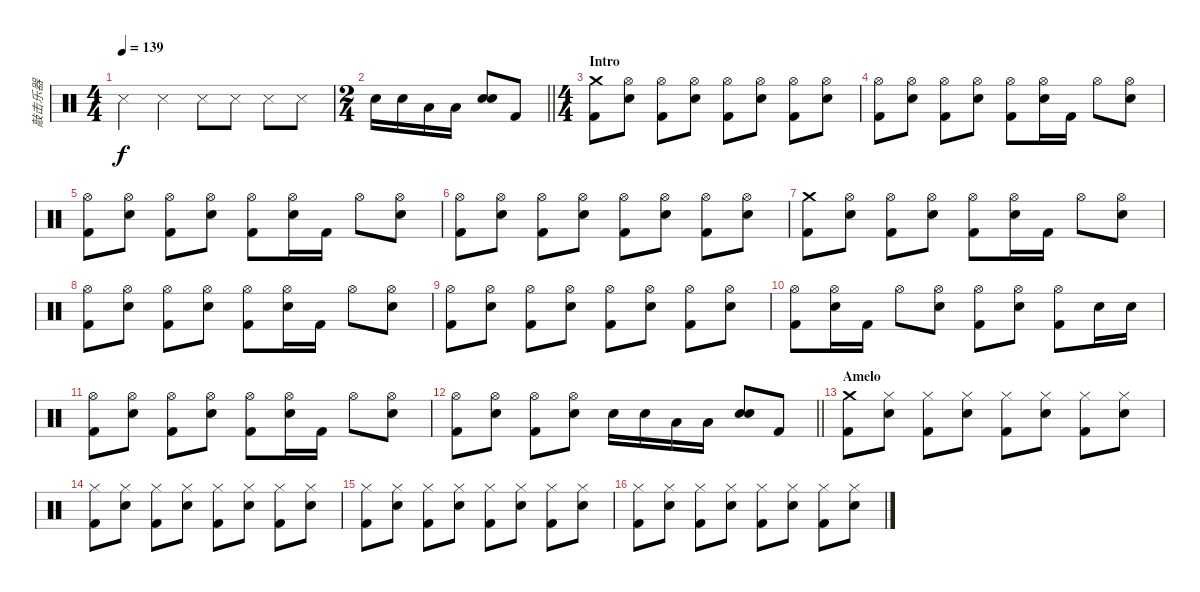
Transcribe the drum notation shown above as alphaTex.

\track ("敲击乐器" "敲击乐器") {instrument percussion}
\staff {score}
\articulation defaults
\ts (4 4)
\tempo 139
\clef neutral
\ks c "Metronome (hit)".4{dy f} "Metronome (hit)".4 "Metronome (hit)".8 "Metronome (hit)".8 "Metronome (hit)".8 "Metronome (hit)".8
|
\ts (2 4)
\barLineRight lightlight "Electric Snare (hit)".16 "Electric Snare (hit)".16 "Low Tom (hit)".16 "Low Tom (hit)".16
("Electric Snare (hit)" "Electric Snare (hit)").8{bd 480} "Kick (hit) 2".8 |
\ts (4 4)
\section ("" "Intro")
("Crash medium (hit)" "Kick (hit) 2").8 ("Hi-Hat (open)" "Electric Snare (hit)").8 ("Hi-Hat (open)" "Kick (hit) 2").8 ("Hi-Hat (open)" "Electric Snare (hit)").8 ("Hi-Hat (open)" "Kick (hit) 2").8 ("Hi-Hat (open)" "Electric Snare (hit)").8 ("Hi-Hat (open)" "Kick (hit) 2").8 ("Hi-Hat (open)" "Electric Snare (hit)").8 |
("Hi-Hat (open)" "Kick (hit) 2").8 ("Hi-Hat (open)" "Electric Snare (hit)").8 ("Hi-Hat (open)" "Kick (hit) 2").8 ("Hi-Hat (open)" "Electric Snare (hit)").8 ("Hi-Hat (open)" "Kick (hit) 2").8 ("Hi-Hat (open)" "Electric Snare (hit)").16 "Kick (hit) 2".16 "Hi-Hat (open)".8 ("Hi-Hat (open)" "Electric Snare (hit)").8 |
("Hi-Hat (open)" "Kick (hit) 2").8 ("Hi-Hat (open)" "Electric Snare (hit)").8 ("Hi-Hat (open)" "Kick (hit) 2").8 ("Hi-Hat (open)" "Electric Snare (hit)").8 ("Hi-Hat (open)" "Kick (hit) 2").8 ("Hi-Hat (open)" "Electric Snare (hit)").16 "Kick (hit) 2".16 "Hi-Hat (open)".8 ("Hi-Hat (open)" "Electric Snare (hit)").8 |
("Hi-Hat (open)" "Kick (hit) 2").8 ("Hi-Hat (open)" "Electric Snare (hit)").8 ("Hi-Hat (open)" "Kick (hit) 2").8 ("Hi-Hat (open)" "Electric Snare (hit)").8 ("Hi-Hat (open)" "Kick (hit) 2").8 ("Hi-Hat (open)" "Electric Snare (hit)").8 ("Hi-Hat (open)" "Kick (hit) 2").8 ("Hi-Hat (open)" "Electric Snare (hit)").8 |
("Crash medium (hit)" "Kick (hit) 2").8 ("Hi-Hat (open)" "Electric Snare (hit)").8 ("Hi-Hat (open)" "Kick (hit) 2").8 ("Hi-Hat (open)" "Electric Snare (hit)").8 ("Hi-Hat (open)" "Kick (hit) 2").8 ("Hi-Hat (open)" "Electric Snare (hit)").16 "Kick (hit) 2".16 "Hi-Hat (open)".8 ("Hi-Hat (open)" "Electric Snare (hit)").8 |
("Hi-Hat (open)" "Kick (hit) 2").8 ("Hi-Hat (open)" "Electric Snare (hit)").8 ("Hi-Hat (open)" "Kick (hit) 2").8 ("Hi-Hat (open)" "Electric Snare (hit)").8 ("Hi-Hat (open)" "Kick (hit) 2").8 ("Hi-Hat (open)" "Electric Snare (hit)").16 "Kick (hit) 2".16 "Hi-Hat (open)".8 ("Hi-Hat (open)" "Electric Snare (hit)").8 |
("Hi-Hat (open)" "Kick (hit) 2").8 ("Hi-Hat (open)" "Electric Snare (hit)").8 ("Hi-Hat (open)" "Kick (hit) 2").8 ("Hi-Hat (open)" "Electric Snare (hit)").8 ("Hi-Hat (open)" "Kick (hit) 2").8 ("Hi-Hat (open)" "Electric Snare (hit)").8 ("Hi-Hat (open)" "Kick (hit) 2").8 ("Hi-Hat (open)" "Electric Snare (hit)").8 |
("Hi-Hat (open)" "Kick (hit) 2").8 ("Hi-Hat (open)" "Electric Snare (hit)").16 "Kick (hit) 2".16 "Hi-Hat (open)".8 ("Hi-Hat (open)" "Electric Snare (hit)").8 ("Hi-Hat (open)" "Kick (hit) 2").8 ("Hi-Hat (open)" "Electric Snare (hit)").8 ("Hi-Hat (open)" "Kick (hit) 2").8 "Electric Snare (hit)".16 "Electric Snare (hit)".16 |
("Hi-Hat (open)" "Kick (hit) 2").8 ("Hi-Hat (open)" "Electric Snare (hit)").8 ("Hi-Hat (open)" "Kick (hit) 2").8 ("Hi-Hat (open)" "Electric Snare (hit)").8 ("Hi-Hat (open)" "Kick (hit) 2").8 ("Hi-Hat (open)" "Electric Snare (hit)").16 "Kick (hit) 2".16 "Hi-Hat (open)".8 ("Hi-Hat (open)" "Electric Snare (hit)").8 |
\barLineRight lightlight
("Hi-Hat (open)" "Kick (hit) 2").8 ("Hi-Hat (open)" "Electric Snare (hit)").8 ("Hi-Hat (open)" "Kick (hit) 2").8 ("Hi-Hat (open)" "Electric Snare (hit)").8 "Electric Snare (hit)".16 "Electric Snare (hit)".16 "Low Tom (hit)".16 "Low Tom (hit)".16 ("Electric Snare (hit)" "Electric Snare (hit)").8{bd 480} "Kick (hit) 2".8 |
\section ("" "Amelo")
("Crash medium (hit)" "Kick (hit) 2").8 ("Hi-Hat (closed)" "Electric Snare (hit)").8 ("Hi-Hat (closed)" "Kick (hit) 2").8 ("Hi-Hat (closed)" "Electric Snare (hit)").8 ("Hi-Hat (closed)" "Kick (hit) 2").8 ("Hi-Hat (closed)" "Electric Snare (hit)").8 ("Hi-Hat (closed)" "Kick (hit) 2").8 ("Hi-Hat (closed)" "Electric Snare (hit)").8 |
("Hi-Hat (closed)" "Kick (hit) 2").8 ("Hi-Hat (closed)" "Electric Snare (hit)").8 ("Hi-Hat (closed)" "Kick (hit) 2").8 ("Hi-Hat (closed)" "Electric Snare (hit)").8 ("Hi-Hat (closed)" "Kick (hit) 2").8 ("Hi-Hat (closed)" "Electric Snare (hit)").8 ("Hi-Hat (closed)" "Kick (hit) 2").8 ("Hi-Hat (closed)" "Electric Snare (hit)").8 |
("Hi-Hat (closed)" "Kick (hit) 2").8 ("Hi-Hat (closed)" "Electric Snare (hit)").8 ("Hi-Hat (closed)" "Kick (hit) 2").8 ("Hi-Hat (closed)" "Electric Snare (hit)").8 ("Hi-Hat (closed)" "Kick (hit) 2").8 ("Hi-Hat (closed)" "Electric Snare (hit)").8 ("Hi-Hat (closed)" "Kick (hit) 2").8 ("Hi-Hat (closed)" "Electric Snare (hit)").8 |
("Hi-Hat (closed)" "Kick (hit) 2").8 ("Hi-Hat (closed)" "Electric Snare (hit)").8 ("Hi-Hat (closed)" "Kick (hit) 2").8 ("Hi-Hat (closed)" "Electric Snare (hit)").8 ("Hi-Hat (closed)" "Kick (hit) 2").8 ("Hi-Hat (closed)" "Electric Snare (hit)").8 ("Hi-Hat (closed)" "Kick (hit) 2").8 ("Hi-Hat (closed)" "Electric Snare (hit)").8
